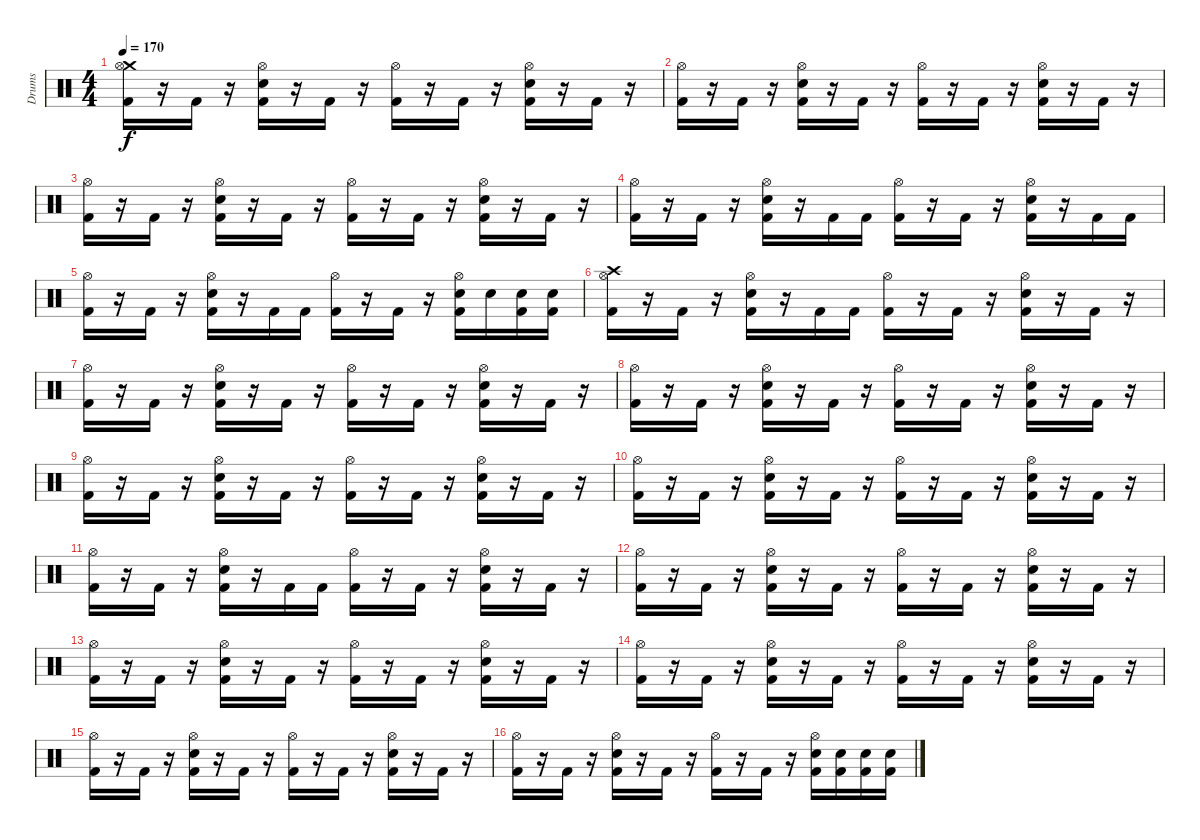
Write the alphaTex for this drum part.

\track ("Drums" "Drums") {instrument percussion}
\staff {score}
\articulation defaults
\ts (4 4)
\tempo 170
\clef neutral
\ks c
("Crash medium (hit)" "Hi-Hat (open)" "Kick (hit) 2").16{dy f} r.16 "Kick (hit) 2".16 r.16 ("Hi-Hat (open)" "Electric Snare (hit)" "Kick (hit) 2").16 r.16 "Kick (hit) 2".16 r.16 ("Hi-Hat (open)" "Kick (hit) 2").16 r.16 "Kick (hit) 2".16 r.16 ("Hi-Hat (open)" "Electric Snare (hit)" "Kick (hit) 2").16 r.16 "Kick (hit) 2".16 r.16 |
("Hi-Hat (open)" "Kick (hit) 2").16 r.16 "Kick (hit) 2".16 r.16 ("Hi-Hat (open)" "Electric Snare (hit)" "Kick (hit) 2").16 r.16 "Kick (hit) 2".16 r.16 ("Hi-Hat (open)" "Kick (hit) 2").16 r.16 "Kick (hit) 2".16 r.16 ("Hi-Hat (open)" "Electric Snare (hit)" "Kick (hit) 2").16 r.16 "Kick (hit) 2".16 r.16 |
("Hi-Hat (open)" "Kick (hit) 2").16 r.16 "Kick (hit) 2".16 r.16 ("Hi-Hat (open)" "Electric Snare (hit)" "Kick (hit) 2").16 r.16 "Kick (hit) 2".16 r.16 ("Hi-Hat (open)" "Kick (hit) 2").16 r.16 "Kick (hit) 2".16 r.16 ("Hi-Hat (open)" "Electric Snare (hit)" "Kick (hit) 2").16 r.16 "Kick (hit) 2".16 r.16 |
("Hi-Hat (open)" "Kick (hit) 2").16 r.16 "Kick (hit) 2".16 r.16 ("Hi-Hat (open)" "Electric Snare (hit)" "Kick (hit) 2").16 r.16 "Kick (hit) 2".16 "Kick (hit) 2".16 ("Hi-Hat (open)" "Kick (hit) 2").16 r.16 "Kick (hit) 2".16 r.16 ("Hi-Hat (open)" "Electric Snare (hit)" "Kick (hit) 2").16 r.16 "Kick (hit) 2".16 "Kick (hit) 2".16 |
("Hi-Hat (open)" "Kick (hit) 2").16 r.16 "Kick (hit) 2".16 r.16 ("Hi-Hat (open)" "Electric Snare (hit)" "Kick (hit) 2").16 r.16 "Kick (hit) 2".16 "Kick (hit) 2".16 ("Hi-Hat (open)" "Kick (hit) 2").16 r.16 "Kick (hit) 2".16 r.16 ("Hi-Hat (open)" "Electric Snare (hit)" "Kick (hit) 2").16 "Electric Snare (hit)".16 ("Electric Snare (hit)" "Kick (hit) 2").16 ("Electric Snare (hit)" "Kick (hit) 2").16 |
("Crash high (hit)" "Hi-Hat (open)" "Kick (hit) 2").16 r.16 "Kick (hit) 2".16 r.16 ("Hi-Hat (open)" "Electric Snare (hit)" "Kick (hit) 2").16 r.16 "Kick (hit) 2".16 "Kick (hit) 2".16 ("Hi-Hat (open)" "Kick (hit) 2").16 r.16 "Kick (hit) 2".16 r.16 ("Hi-Hat (open)" "Electric Snare (hit)" "Kick (hit) 2").16 r.16 "Kick (hit) 2".16 r.16 |
("Hi-Hat (open)" "Kick (hit) 2").16 r.16 "Kick (hit) 2".16 r.16 ("Hi-Hat (open)" "Electric Snare (hit)" "Kick (hit) 2").16 r.16 "Kick (hit) 2".16 r.16 ("Hi-Hat (open)" "Kick (hit) 2").16 r.16 "Kick (hit) 2".16 r.16 ("Hi-Hat (open)" "Electric Snare (hit)" "Kick (hit) 2").16 r.16 "Kick (hit) 2".16 r.16 |
("Hi-Hat (open)" "Kick (hit) 2").16 r.16 "Kick (hit) 2".16 r.16 ("Hi-Hat (open)" "Electric Snare (hit)" "Kick (hit) 2").16 r.16 "Kick (hit) 2".16 r.16 ("Hi-Hat (open)" "Kick (hit) 2").16 r.16 "Kick (hit) 2".16 r.16 ("Hi-Hat (open)" "Electric Snare (hit)" "Kick (hit) 2").16 r.16 "Kick (hit) 2".16 r.16 |
("Hi-Hat (open)" "Kick (hit) 2").16 r.16 "Kick (hit) 2".16 r.16 ("Hi-Hat (open)" "Electric Snare (hit)" "Kick (hit) 2").16 r.16 "Kick (hit) 2".16 r.16 ("Hi-Hat (open)" "Kick (hit) 2").16 r.16 "Kick (hit) 2".16 r.16 ("Hi-Hat (open)" "Electric Snare (hit)" "Kick (hit) 2").16 r.16 "Kick (hit) 2".16 r.16 |
("Hi-Hat (open)" "Kick (hit) 2").16 r.16 "Kick (hit) 2".16 r.16 ("Hi-Hat (open)" "Electric Snare (hit)" "Kick (hit) 2").16 r.16 "Kick (hit) 2".16 r.16 ("Hi-Hat (open)" "Kick (hit) 2").16 r.16 "Kick (hit) 2".16 r.16 ("Hi-Hat (open)" "Electric Snare (hit)" "Kick (hit) 2").16 r.16 "Kick (hit) 2".16 r.16 |
("Hi-Hat (open)" "Kick (hit) 2").16 r.16 "Kick (hit) 2".16 r.16 ("Hi-Hat (open)" "Electric Snare (hit)" "Kick (hit) 2").16 r.16 "Kick (hit) 2".16 "Kick (hit) 2".16 ("Hi-Hat (open)" "Kick (hit) 2").16 r.16 "Kick (hit) 2".16 r.16 ("Hi-Hat (open)" "Electric Snare (hit)" "Kick (hit) 2").16 r.16 "Kick (hit) 2".16 r.16 |
("Hi-Hat (open)" "Kick (hit) 2").16 r.16 "Kick (hit) 2".16 r.16 ("Hi-Hat (open)" "Electric Snare (hit)" "Kick (hit) 2").16 r.16 "Kick (hit) 2".16 r.16 ("Hi-Hat (open)" "Kick (hit) 2").16 r.16 "Kick (hit) 2".16 r.16 ("Hi-Hat (open)" "Electric Snare (hit)" "Kick (hit) 2").16 r.16 "Kick (hit) 2".16 r.16 |
("Hi-Hat (open)" "Kick (hit) 2").16 r.16 "Kick (hit) 2".16 r.16 ("Hi-Hat (open)" "Electric Snare (hit)" "Kick (hit) 2").16 r.16 "Kick (hit) 2".16 r.16 ("Hi-Hat (open)" "Kick (hit) 2").16 r.16 "Kick (hit) 2".16 r.16 ("Hi-Hat (open)" "Electric Snare (hit)" "Kick (hit) 2").16 r.16 "Kick (hit) 2".16 r.16 |
("Hi-Hat (open)" "Kick (hit) 2").16 r.16 "Kick (hit) 2".16 r.16 ("Hi-Hat (open)" "Electric Snare (hit)" "Kick (hit) 2").16 r.16 "Kick (hit) 2".16 r.16 ("Hi-Hat (open)" "Kick (hit) 2").16 r.16 "Kick (hit) 2".16 r.16 ("Hi-Hat (open)" "Electric Snare (hit)" "Kick (hit) 2").16 r.16 "Kick (hit) 2".16 r.16 |
("Hi-Hat (open)" "Kick (hit) 2").16 r.16 "Kick (hit) 2".16 r.16 ("Hi-Hat (open)" "Electric Snare (hit)" "Kick (hit) 2").16 r.16 "Kick (hit) 2".16 r.16 ("Hi-Hat (open)" "Kick (hit) 2").16 r.16 "Kick (hit) 2".16 r.16 ("Hi-Hat (open)" "Electric Snare (hit)" "Kick (hit) 2").16 r.16 "Kick (hit) 2".16 r.16 |
("Hi-Hat (open)" "Kick (hit) 2").16 r.16 "Kick (hit) 2".16 r.16 ("Hi-Hat (open)" "Electric Snare (hit)" "Kick (hit) 2").16 r.16 "Kick (hit) 2".16 r.16 ("Hi-Hat (open)" "Kick (hit) 2").16 r.16 "Kick (hit) 2".16 r.16 ("Hi-Hat (open)" "Electric Snare (hit)" "Kick (hit) 2").16 ("Electric Snare (hit)" "Kick (hit) 2").16 ("Electric Snare (hit)" "Kick (hit) 2").16 ("Electric Snare (hit)" "Kick (hit) 2").16
